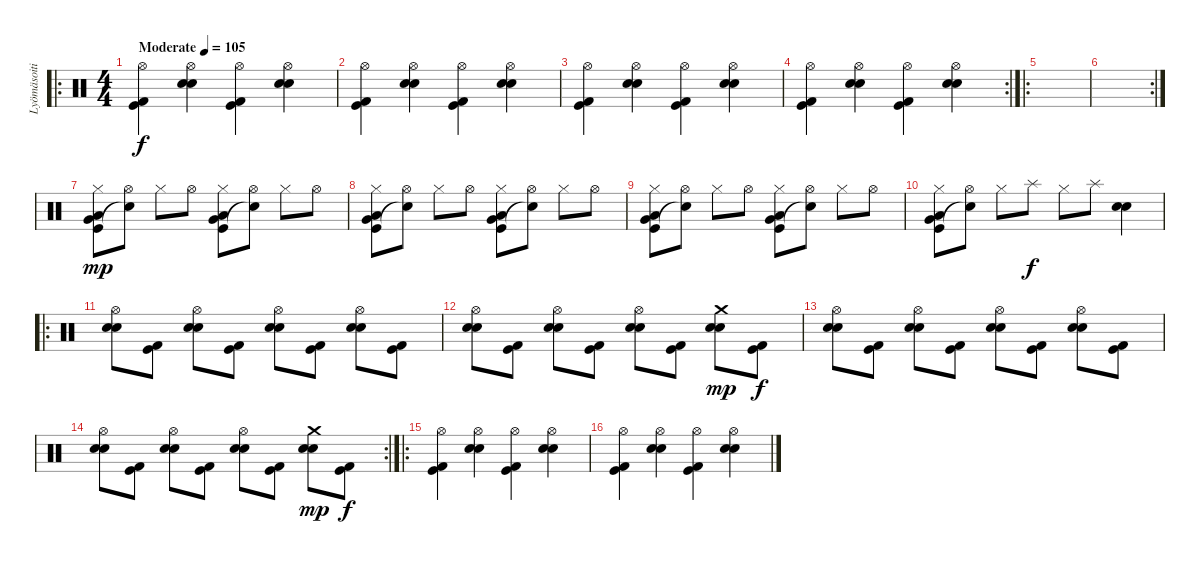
\track ("Lyömäsoitin" "Lyömäsoiti") {instrument percussion}
\staff {score}
\articulation defaults
\ro
\ts (4 4)
\tempo (105 "Moderate")
\clef neutral
\ks c
("Kick (hit)" "Kick (hit) 2" "Hi-Hat (open)").4{dy f} ("Electric Snare (hit)" "Snare (hit) 2" "Hi-Hat (open)").4 ("Kick (hit)" "Kick (hit) 2" "Hi-Hat (open)").4 ("Electric Snare (hit)" "Snare (hit) 2" "Hi-Hat (open)").4 |
("Kick (hit)" "Kick (hit) 2" "Hi-Hat (open)").4 ("Electric Snare (hit)" "Snare (hit) 2" "Hi-Hat (open)").4 ("Kick (hit)" "Kick (hit) 2" "Hi-Hat (open)").4 ("Electric Snare (hit)" "Snare (hit) 2" "Hi-Hat (open)").4 |
("Kick (hit)" "Kick (hit) 2" "Hi-Hat (open)").4 ("Electric Snare (hit)" "Snare (hit) 2" "Hi-Hat (open)").4 ("Kick (hit)" "Kick (hit) 2" "Hi-Hat (open)").4 ("Electric Snare (hit)" "Snare (hit) 2" "Hi-Hat (open)").4 |
\rc 2
("Kick (hit)" "Kick (hit) 2" "Hi-Hat (open)").4 ("Electric Snare (hit)" "Snare (hit) 2" "Hi-Hat (open)").4 ("Kick (hit)" "Kick (hit) 2" "Hi-Hat (open)").4 ("Electric Snare (hit)" "Snare (hit) 2" "Hi-Hat (open)").4 |
\ro
|
\rc 2
|
("Kick (hit)" "Low Floor Tom (hit)" "Very Low Tom (hit)" "Hi-Hat (closed)").8{dy mp} ("Snare (hit)"{t} "Hi-Hat (open)").8 "Hi-Hat (closed)".8 "Hi-Hat (open)".8 ("Kick (hit)" "Low Floor Tom (hit)" "Very Low Tom (hit)" "Hi-Hat (closed)").8 ("Snare (hit)"{t} "Hi-Hat (open)").8 "Hi-Hat (closed)".8 "Hi-Hat (open)".8 |
("Kick (hit)" "Low Floor Tom (hit)" "Very Low Tom (hit)" "Hi-Hat (closed)").8 ("Snare (hit)"{t} "Hi-Hat (open)").8 "Hi-Hat (closed)".8 "Hi-Hat (open)".8 ("Kick (hit)" "Low Floor Tom (hit)" "Very Low Tom (hit)" "Hi-Hat (closed)").8 ("Snare (hit)"{t} "Hi-Hat (open)").8 "Hi-Hat (closed)".8 "Hi-Hat (open)".8 |
("Kick (hit)" "Low Floor Tom (hit)" "Very Low Tom (hit)" "Hi-Hat (closed)").8 ("Snare (hit)"{t} "Hi-Hat (open)").8 "Hi-Hat (closed)".8 "Hi-Hat (open)".8 ("Kick (hit)" "Low Floor Tom (hit)" "Very Low Tom (hit)" "Hi-Hat (closed)").8 ("Snare (hit)"{t} "Hi-Hat (open)").8 "Hi-Hat (closed)".8 "Hi-Hat (open)".8 |
("Kick (hit)" "Low Floor Tom (hit)" "Very Low Tom (hit)" "Hi-Hat (closed)").8 ("Snare (hit)"{t} "Hi-Hat (open)").8 "Hi-Hat (closed)".8 "Splash (hit)".8{dy f} "Hi-Hat (closed)".8 "Splash (hit)".8 ("Electric Snare (hit)" "Snare (hit) 2").4 |
\ro
("Electric Snare (hit)" "Snare (hit) 2" "Hi-Hat (open)").8 ("Kick (hit)" "Kick (hit) 2").8 ("Electric Snare (hit)" "Snare (hit) 2" "Hi-Hat (open)").8 ("Kick (hit)" "Kick (hit) 2").8 ("Electric Snare (hit)" "Snare (hit) 2" "Hi-Hat (open)").8 ("Kick (hit)" "Kick (hit) 2").8 ("Electric Snare (hit)" "Snare (hit) 2" "Hi-Hat (open)").8 ("Kick (hit)" "Kick (hit) 2").8 |
("Electric Snare (hit)" "Snare (hit) 2" "Hi-Hat (open)").8 ("Kick (hit)" "Kick (hit) 2").8 ("Electric Snare (hit)" "Snare (hit) 2" "Hi-Hat (open)").8 ("Kick (hit)" "Kick (hit) 2").8 ("Electric Snare (hit)" "Snare (hit) 2" "Hi-Hat (open)").8 ("Kick (hit)" "Kick (hit) 2").8 ("Electric Snare (hit)" "Snare (hit) 2" "Crash medium (hit)").8{dy mp} ("Kick (hit)" "Kick (hit) 2").8{dy f} |
("Electric Snare (hit)" "Snare (hit) 2" "Hi-Hat (open)").8 ("Kick (hit)" "Kick (hit) 2").8 ("Electric Snare (hit)" "Snare (hit) 2" "Hi-Hat (open)").8 ("Kick (hit)" "Kick (hit) 2").8 ("Electric Snare (hit)" "Snare (hit) 2" "Hi-Hat (open)").8 ("Kick (hit)" "Kick (hit) 2").8 ("Electric Snare (hit)" "Snare (hit) 2" "Hi-Hat (open)").8 ("Kick (hit)" "Kick (hit) 2").8 |
\rc 2
("Electric Snare (hit)" "Snare (hit) 2" "Hi-Hat (open)").8 ("Kick (hit)" "Kick (hit) 2").8 ("Electric Snare (hit)" "Snare (hit) 2" "Hi-Hat (open)").8 ("Kick (hit)" "Kick (hit) 2").8 ("Electric Snare (hit)" "Snare (hit) 2" "Hi-Hat (open)").8 ("Kick (hit)" "Kick (hit) 2").8 ("Electric Snare (hit)" "Snare (hit) 2" "Crash medium (hit)").8{dy mp} ("Kick (hit)" "Kick (hit) 2").8{dy f} |
\ro
("Kick (hit)" "Kick (hit) 2" "Hi-Hat (open)").4 ("Electric Snare (hit)" "Snare (hit) 2" "Hi-Hat (open)").4 ("Kick (hit)" "Kick (hit) 2" "Hi-Hat (open)").4 ("Electric Snare (hit)" "Snare (hit) 2" "Hi-Hat (open)").4 |
("Kick (hit)" "Kick (hit) 2" "Hi-Hat (open)").4 ("Electric Snare (hit)" "Snare (hit) 2" "Hi-Hat (open)").4 ("Kick (hit)" "Kick (hit) 2" "Hi-Hat (open)").4 ("Electric Snare (hit)" "Snare (hit) 2" "Hi-Hat (open)").4
